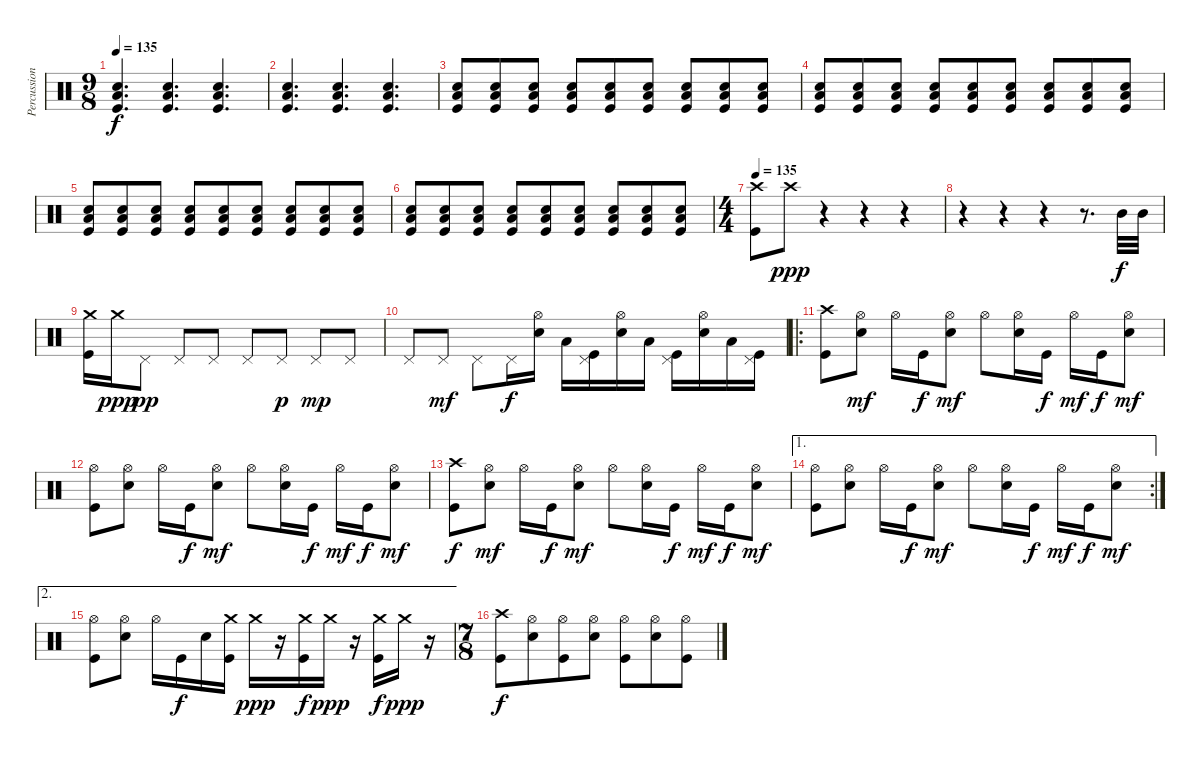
\track ("Percussion" "Percussion") {instrument percussion}
\staff {score}
\articulation defaults
\ts (9 8)
\tempo 135
\clef neutral
\ks c
("Electric Snare (hit)" "Low Floor Tom (hit)" "Kick (hit)").4{d dy f} ("Electric Snare (hit)" "Low Floor Tom (hit)" "Kick (hit)").4{d} ("Electric Snare (hit)" "Low Floor Tom (hit)" "Kick (hit)").4{d} |
("Electric Snare (hit)" "Low Floor Tom (hit)" "Kick (hit)").4{d} ("Electric Snare (hit)" "Low Floor Tom (hit)" "Kick (hit)").4{d} ("Electric Snare (hit)" "Low Floor Tom (hit)" "Kick (hit)").4{d} |
("Electric Snare (hit)" "Low Floor Tom (hit)" "Kick (hit)").8{volume 8} ("Electric Snare (hit)" "Low Floor Tom (hit)" "Kick (hit)").8{volume 16} ("Electric Snare (hit)" "Low Floor Tom (hit)" "Kick (hit)").8 ("Electric Snare (hit)" "Low Floor Tom (hit)" "Kick (hit)").8 ("Electric Snare (hit)" "Low Floor Tom (hit)" "Kick (hit)").8 ("Electric Snare (hit)" "Low Floor Tom (hit)" "Kick (hit)").8 ("Electric Snare (hit)" "Low Floor Tom (hit)" "Kick (hit)").8 ("Electric Snare (hit)" "Low Floor Tom (hit)" "Kick (hit)").8 ("Electric Snare (hit)" "Low Floor Tom (hit)" "Kick (hit)").8 |
("Electric Snare (hit)" "Low Floor Tom (hit)" "Kick (hit)").8 ("Electric Snare (hit)" "Low Floor Tom (hit)" "Kick (hit)").8 ("Electric Snare (hit)" "Low Floor Tom (hit)" "Kick (hit)").8 ("Electric Snare (hit)" "Low Floor Tom (hit)" "Kick (hit)").8 ("Electric Snare (hit)" "Low Floor Tom (hit)" "Kick (hit)").8 ("Electric Snare (hit)" "Low Floor Tom (hit)" "Kick (hit)").8 ("Electric Snare (hit)" "Low Floor Tom (hit)" "Kick (hit)").8 ("Electric Snare (hit)" "Low Floor Tom (hit)" "Kick (hit)").8 ("Electric Snare (hit)" "Low Floor Tom (hit)" "Kick (hit)").8 |
("Electric Snare (hit)" "Low Floor Tom (hit)" "Kick (hit)").8 ("Electric Snare (hit)" "Low Floor Tom (hit)" "Kick (hit)").8 ("Electric Snare (hit)" "Low Floor Tom (hit)" "Kick (hit)").8 ("Electric Snare (hit)" "Low Floor Tom (hit)" "Kick (hit)").8 ("Electric Snare (hit)" "Low Floor Tom (hit)" "Kick (hit)").8 ("Electric Snare (hit)" "Low Floor Tom (hit)" "Kick (hit)").8 ("Electric Snare (hit)" "Low Floor Tom (hit)" "Kick (hit)").8 ("Electric Snare (hit)" "Low Floor Tom (hit)" "Kick (hit)").8 ("Electric Snare (hit)" "Low Floor Tom (hit)" "Kick (hit)").8 |
("Electric Snare (hit)" "Low Floor Tom (hit)" "Kick (hit)").8 ("Electric Snare (hit)" "Low Floor Tom (hit)" "Kick (hit)").8 ("Electric Snare (hit)" "Low Floor Tom (hit)" "Kick (hit)").8 ("Electric Snare (hit)" "Low Floor Tom (hit)" "Kick (hit)").8 ("Electric Snare (hit)" "Low Floor Tom (hit)" "Kick (hit)").8 ("Electric Snare (hit)" "Low Floor Tom (hit)" "Kick (hit)").8 ("Electric Snare (hit)" "Low Floor Tom (hit)" "Kick (hit)").8 ("Electric Snare (hit)" "Low Floor Tom (hit)" "Kick (hit)").8 ("Electric Snare (hit)" "Low Floor Tom (hit)" "Kick (hit)").8 |
\ts (4 4)
\tempo 135
("Crash high (hit)" "Kick (hit)").8 "Crash high (hit)".8{dy ppp} r.4 r.4 r.4 |
r.4 r.4 r.4 r.8{d} "Mid Tom (hit)".32{dy f} "Mid Tom (hit)".32 |
("Crash medium (hit)" "Kick (hit)").16 "Crash medium (hit)".16{dy ppp} "Pedal Hi-Hat (hit)".8{dy pp} "Pedal Hi-Hat (hit)".8 "Pedal Hi-Hat (hit)".8 "Pedal Hi-Hat (hit)".8 "Pedal Hi-Hat (hit)".8{dy p} "Pedal Hi-Hat (hit)".8{dy mp} "Pedal Hi-Hat (hit)".8 |
"Pedal Hi-Hat (hit)".8 "Pedal Hi-Hat (hit)".8{dy mf} "Pedal Hi-Hat (hit)".8 "Pedal Hi-Hat (hit)".16{dy f} ("Hi-Hat (open)" "Electric Snare (hit)").16 "Low Floor Tom (hit)".16 ("Pedal Hi-Hat (hit)" "Kick (hit)").16 ("Hi-Hat (open)" "Electric Snare (hit)").16 "Low Floor Tom (hit)".16 ("Pedal Hi-Hat (hit)" "Kick (hit)").16 ("Hi-Hat (open)" "Electric Snare (hit)").16 "Low Floor Tom (hit)".16 ("Pedal Hi-Hat (hit)" "Kick (hit)").16 |
\ro
("Crash high (hit)" "Kick (hit)").8 ("Hi-Hat (open)" "Electric Snare (hit)").8{dy mf} "Hi-Hat (open)".16 "Kick (hit)".16{dy f} ("Hi-Hat (open)" "Electric Snare (hit)").8{dy mf} "Hi-Hat (open)".8 ("Hi-Hat (open)" "Electric Snare (hit)").16 "Kick (hit)".16{dy f} "Hi-Hat (open)".16{dy mf} "Kick (hit)".16{dy f} ("Hi-Hat (open)" "Electric Snare (hit)").8{dy mf} |
("Hi-Hat (open)" "Kick (hit)").8 ("Hi-Hat (open)" "Electric Snare (hit)").8 "Hi-Hat (open)".16 "Kick (hit)".16{dy f} ("Hi-Hat (open)" "Electric Snare (hit)").8{dy mf} "Hi-Hat (open)".8 ("Hi-Hat (open)" "Electric Snare (hit)").16 "Kick (hit)".16{dy f} "Hi-Hat (open)".16{dy mf} "Kick (hit)".16{dy f} ("Hi-Hat (open)" "Electric Snare (hit)").8{dy mf} |
("Crash high (hit)" "Kick (hit)").8{dy f} ("Hi-Hat (open)" "Electric Snare (hit)").8{dy mf} "Hi-Hat (open)".16 "Kick (hit)".16{dy f} ("Hi-Hat (open)" "Electric Snare (hit)").8{dy mf} "Hi-Hat (open)".8 ("Hi-Hat (open)" "Electric Snare (hit)").16 "Kick (hit)".16{dy f} "Hi-Hat (open)".16{dy mf} "Kick (hit)".16{dy f} ("Hi-Hat (open)" "Electric Snare (hit)").8{dy mf} |
\ae 1
\rc 2
("Hi-Hat (open)" "Kick (hit)").8 ("Hi-Hat (open)" "Electric Snare (hit)").8 "Hi-Hat (open)".16 "Kick (hit)".16{dy f} ("Hi-Hat (open)" "Electric Snare (hit)").8{dy mf} "Hi-Hat (open)".8 ("Hi-Hat (open)" "Electric Snare (hit)").16 "Kick (hit)".16{dy f} "Hi-Hat (open)".16{dy mf} "Kick (hit)".16{dy f} ("Hi-Hat (open)" "Electric Snare (hit)").8{dy mf} |
\ae 2
("Hi-Hat (open)" "Kick (hit)").8 ("Hi-Hat (open)" "Electric Snare (hit)").8 "Hi-Hat (open)".16 "Kick (hit)".16{dy f} "Electric Snare (hit)".16 ("Crash medium (hit)" "Kick (hit)").16 "Crash medium (hit)".16{dy ppp} r.16 ("Crash medium (hit)" "Kick (hit)").16{dy f} "Crash medium (hit)".16{dy ppp} r.16 ("Crash medium (hit)" "Kick (hit)").16{dy f} "Crash medium (hit)".16{dy ppp} r.16 |
\ts (7 8)
("Crash high (hit)" "Kick (hit)").8{dy f} ("Hi-Hat (open)" "Electric Snare (hit)").8 ("Hi-Hat (open)" "Kick (hit)").8 ("Hi-Hat (open)" "Electric Snare (hit)").8 ("Hi-Hat (open)" "Kick (hit)").8 ("Hi-Hat (open)" "Electric Snare (hit)").8 ("Hi-Hat (open)" "Kick (hit)").8
